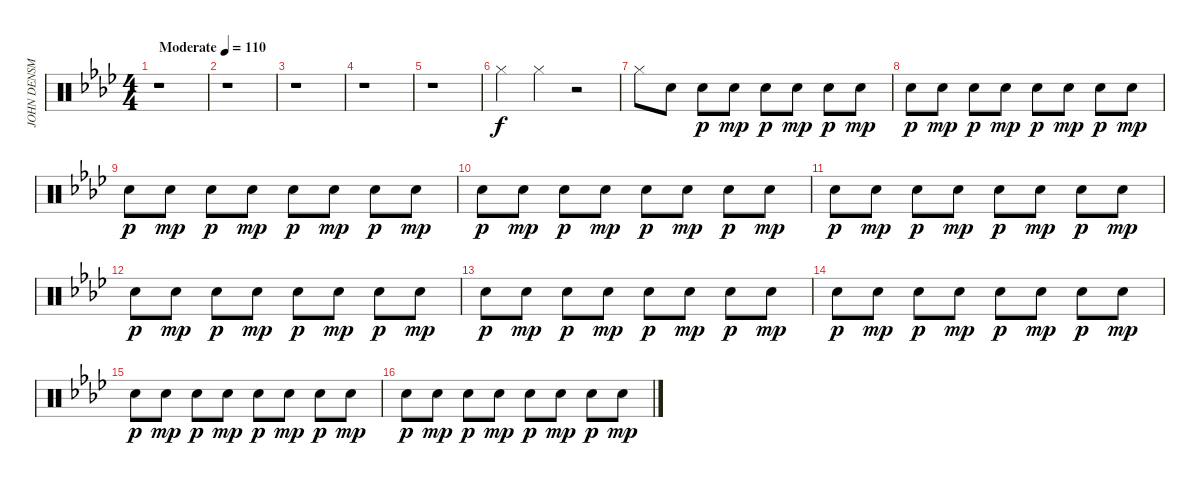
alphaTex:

\track ("JOHN DENSMORE" "JOHN DENSM") {instrument percussion}
\staff {score}
\articulation defaults
\ts (4 4)
\tempo (110 "Moderate")
\clef neutral
\ks ab
r.1{dy f} |
r.1 |
r.1 |
r.1 |
r.1 |
"Hi-Hat (closed)".4 "Hi-Hat (closed)".4 r.2 |
"Hi-Hat (closed)".8 "Snare (hit) 2".8 "Snare (hit) 2".8{dy p} "Snare (hit) 2".8{dy mp} "Snare (hit) 2".8{dy p} "Snare (hit) 2".8{dy mp} "Snare (hit) 2".8{dy p} "Snare (hit) 2".8{dy mp} |
"Snare (hit) 2".8{dy p} "Snare (hit) 2".8{dy mp} "Snare (hit) 2".8{dy p} "Snare (hit) 2".8{dy mp} "Snare (hit) 2".8{dy p} "Snare (hit) 2".8{dy mp} "Snare (hit) 2".8{dy p} "Snare (hit) 2".8{dy mp} |
"Snare (hit) 2".8{dy p} "Snare (hit) 2".8{dy mp} "Snare (hit) 2".8{dy p} "Snare (hit) 2".8{dy mp} "Snare (hit) 2".8{dy p} "Snare (hit) 2".8{dy mp} "Snare (hit) 2".8{dy p} "Snare (hit) 2".8{dy mp} |
"Snare (hit) 2".8{dy p} "Snare (hit) 2".8{dy mp} "Snare (hit) 2".8{dy p} "Snare (hit) 2".8{dy mp} "Snare (hit) 2".8{dy p} "Snare (hit) 2".8{dy mp} "Snare (hit) 2".8{dy p} "Snare (hit) 2".8{dy mp} |
"Snare (hit) 2".8{dy p} "Snare (hit) 2".8{dy mp} "Snare (hit) 2".8{dy p} "Snare (hit) 2".8{dy mp} "Snare (hit) 2".8{dy p} "Snare (hit) 2".8{dy mp} "Snare (hit) 2".8{dy p} "Snare (hit) 2".8{dy mp} |
"Snare (hit) 2".8{dy p} "Snare (hit) 2".8{dy mp} "Snare (hit) 2".8{dy p} "Snare (hit) 2".8{dy mp} "Snare (hit) 2".8{dy p} "Snare (hit) 2".8{dy mp} "Snare (hit) 2".8{dy p} "Snare (hit) 2".8{dy mp} |
"Snare (hit) 2".8{dy p} "Snare (hit) 2".8{dy mp} "Snare (hit) 2".8{dy p} "Snare (hit) 2".8{dy mp} "Snare (hit) 2".8{dy p} "Snare (hit) 2".8{dy mp} "Snare (hit) 2".8{dy p} "Snare (hit) 2".8{dy mp} |
"Snare (hit) 2".8{dy p} "Snare (hit) 2".8{dy mp} "Snare (hit) 2".8{dy p} "Snare (hit) 2".8{dy mp} "Snare (hit) 2".8{dy p} "Snare (hit) 2".8{dy mp} "Snare (hit) 2".8{dy p} "Snare (hit) 2".8{dy mp} |
"Snare (hit) 2".8{dy p} "Snare (hit) 2".8{dy mp} "Snare (hit) 2".8{dy p} "Snare (hit) 2".8{dy mp} "Snare (hit) 2".8{dy p} "Snare (hit) 2".8{dy mp} "Snare (hit) 2".8{dy p} "Snare (hit) 2".8{dy mp} |
"Snare (hit) 2".8{dy p} "Snare (hit) 2".8{dy mp} "Snare (hit) 2".8{dy p} "Snare (hit) 2".8{dy mp} "Snare (hit) 2".8{dy p} "Snare (hit) 2".8{dy mp} "Snare (hit) 2".8{dy p} "Snare (hit) 2".8{dy mp}
